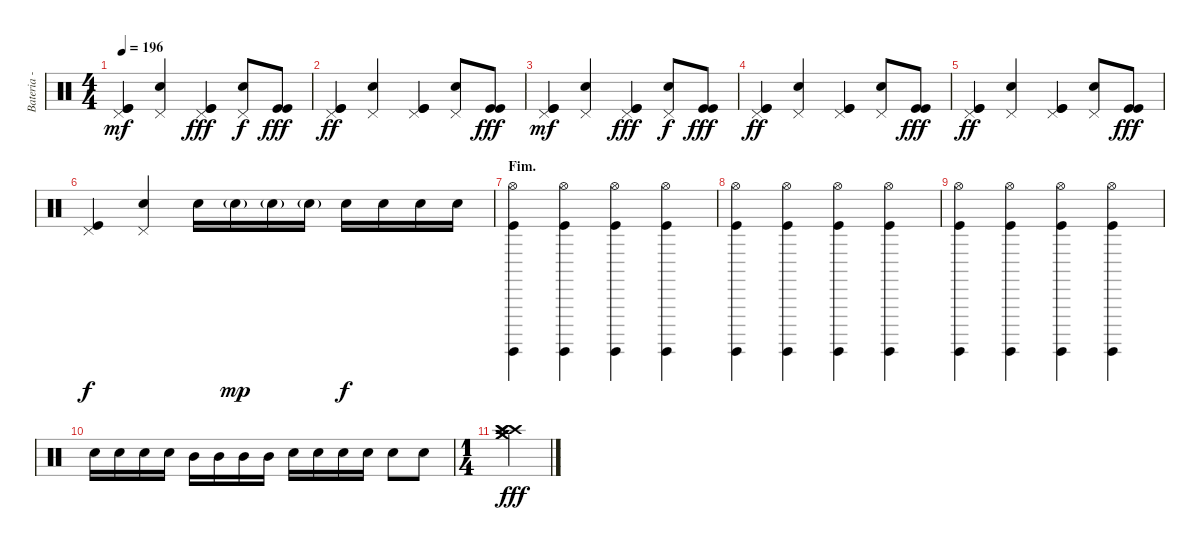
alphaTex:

\track ("Bateria - Larzon" "Bateria - ") {instrument percussion}
\staff {score}
\articulation defaults
\ts (4 4)
\tempo 196
\clef neutral
\ks c
("Kick (hit)" "Kick (hit)" "Pedal Hi-Hat (hit)").4{dy mf} ("Electric Snare (hit)" "Pedal Hi-Hat (hit)").4 ("Kick (hit)" "Kick (hit)" "Pedal Hi-Hat (hit)").4{dy fff} ("Electric Snare (hit)" "Pedal Hi-Hat (hit)").8{dy f} ("Kick (hit)" "Kick (hit)").8{dy fff} |
("Kick (hit)" "Kick (hit)" "Pedal Hi-Hat (hit)").4{dy ff} ("Electric Snare (hit)" "Pedal Hi-Hat (hit)").4 ("Kick (hit)" "Kick (hit)" "Pedal Hi-Hat (hit)").4 ("Electric Snare (hit)" "Pedal Hi-Hat (hit)").8 ("Kick (hit)" "Kick (hit)").8{dy fff} |
("Kick (hit)" "Kick (hit)" "Pedal Hi-Hat (hit)").4{dy mf} ("Electric Snare (hit)" "Pedal Hi-Hat (hit)").4 ("Kick (hit)" "Kick (hit)" "Pedal Hi-Hat (hit)").4{dy fff} ("Electric Snare (hit)" "Pedal Hi-Hat (hit)").8{dy f} ("Kick (hit)" "Kick (hit)").8{dy fff} |
("Kick (hit)" "Kick (hit)" "Pedal Hi-Hat (hit)").4{dy ff} ("Electric Snare (hit)" "Pedal Hi-Hat (hit)").4 ("Kick (hit)" "Kick (hit)" "Pedal Hi-Hat (hit)").4 ("Electric Snare (hit)" "Pedal Hi-Hat (hit)").8 ("Kick (hit)" "Kick (hit)").8{dy fff} |
("Kick (hit)" "Kick (hit)" "Pedal Hi-Hat (hit)").4{dy ff} ("Electric Snare (hit)" "Pedal Hi-Hat (hit)").4 ("Kick (hit)" "Kick (hit)" "Pedal Hi-Hat (hit)").4 ("Electric Snare (hit)" "Pedal Hi-Hat (hit)").8 ("Kick (hit)" "Kick (hit)").8{dy fff} |
("Kick (hit)" "Pedal Hi-Hat (hit)").4{dy f} ("Electric Snare (hit)" "Pedal Hi-Hat (hit)").4 "Electric Snare (hit)".16 "Electric Snare (hit)"{g}.16{dy mp} "Electric Snare (hit)"{g}.16 "Electric Snare (hit)"{g}.16 "Electric Snare (hit)".16{dy f} "Electric Snare (hit)".16 "Electric Snare (hit)".16 "Electric Snare (hit)".16 |
\section ("" "Fim.")
("Kick (hit)" "Surdo (hit)" "Hi-Hat (open)").4 ("Kick (hit)" "Surdo (hit)" "Hi-Hat (open)").4 ("Kick (hit)" "Surdo (hit)" "Hi-Hat (open)").4 ("Kick (hit)" "Surdo (hit)" "Hi-Hat (open)").4 |
("Kick (hit)" "Surdo (hit)" "Hi-Hat (open)").4 ("Kick (hit)" "Surdo (hit)" "Hi-Hat (open)").4 ("Kick (hit)" "Surdo (hit)" "Hi-Hat (open)").4 ("Kick (hit)" "Surdo (hit)" "Hi-Hat (open)").4 |
("Kick (hit)" "Surdo (hit)" "Hi-Hat (open)").4 ("Kick (hit)" "Surdo (hit)" "Hi-Hat (open)").4 ("Kick (hit)" "Surdo (hit)" "Hi-Hat (open)").4 ("Kick (hit)" "Surdo (hit)" "Hi-Hat (open)").4 |
"Electric Snare (hit)".16 "Electric Snare (hit)".16 "Electric Snare (hit)".16 "Electric Snare (hit)".16 "Mid Tom (hit)".16 "Mid Tom (hit)".16 "Mid Tom (hit)".16 "Mid Tom (hit)".16 "Electric Snare (hit)".16 "Electric Snare (hit)".16 "Electric Snare (hit)".16 "Electric Snare (hit)".16 "Electric Snare (hit)".8 "Electric Snare (hit)".8 |
\ts (1 4)
("Crash high (hit)" "Crash high (hit)" "Crash high (hit)" "Crash medium (hit)" "Crash medium (hit)").4{dy fff}
